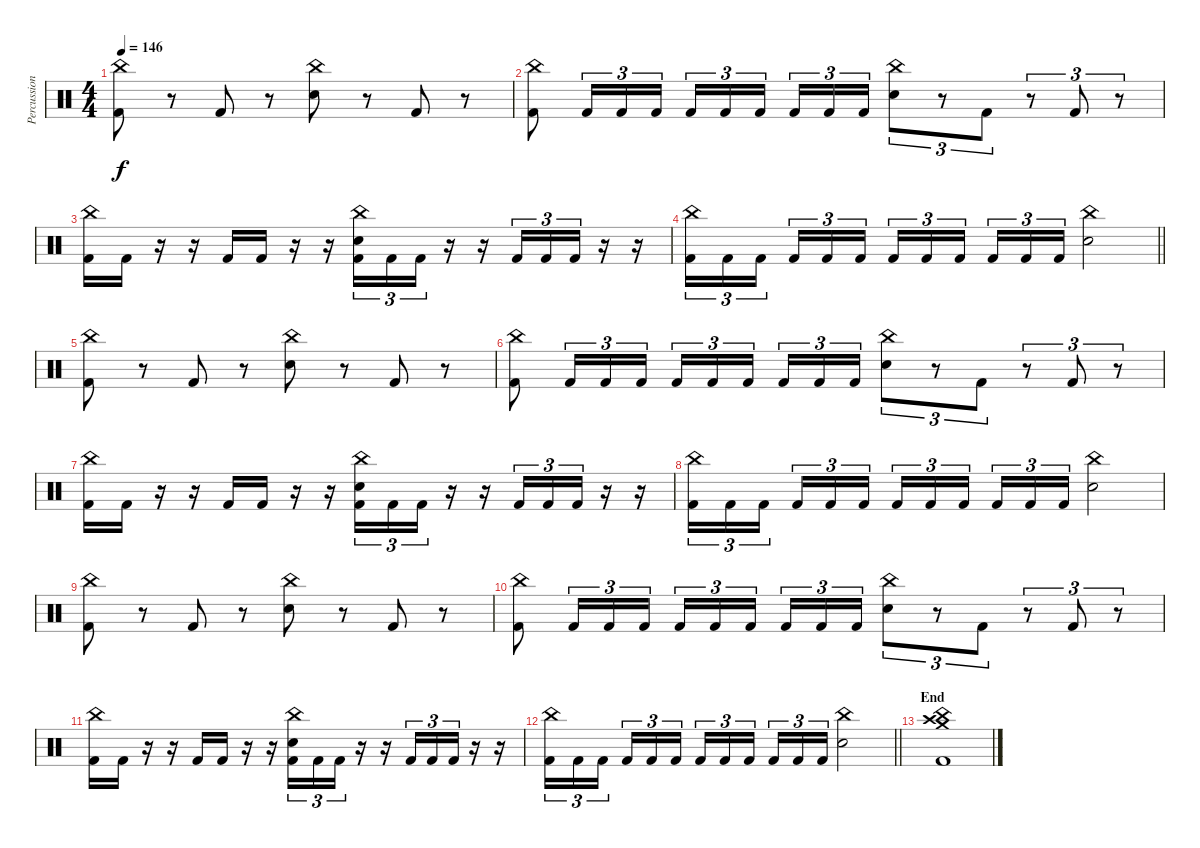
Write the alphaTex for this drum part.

\track ("Percussion" "Percussion") {instrument percussion}
\staff {score}
\articulation defaults
\ts (4 4)
\tempo 146
\clef neutral
\ks c
("China (hit)" "Kick (hit) 2").8{dy f} r.8 "Kick (hit) 2".8 r.8 ("China (hit)" "Electric Snare (hit)").8 r.8 "Kick (hit) 2".8 r.8 |
("China (hit)" "Kick (hit) 2").8 "Kick (hit) 2".16{tu (3 2)} "Kick (hit) 2".16{tu (3 2)} "Kick (hit) 2".16{tu (3 2)} "Kick (hit) 2".16{tu (3 2)} "Kick (hit) 2".16{tu (3 2)} "Kick (hit) 2".16{tu (3 2) beam splitsecondary} "Kick (hit) 2".16{tu (3 2)} "Kick (hit) 2".16{tu (3 2)} "Kick (hit) 2".16{tu (3 2)} ("China (hit)" "Electric Snare (hit)").8{tu (3 2)} r.8{tu (3 2)} "Kick (hit) 2".8{tu (3 2)} r.8{tu (3 2)} "Kick (hit) 2".8{tu (3 2)} r.8{tu (3 2)} |
("China (hit)" "Kick (hit) 2").16 "Kick (hit) 2".16 r.16 r.16 "Kick (hit) 2".16 "Kick (hit) 2".16 r.16 r.16 ("China (hit)" "Electric Snare (hit)" "Kick (hit) 2").16{tu (3 2)} "Kick (hit) 2".16{tu (3 2)} "Kick (hit) 2".16{tu (3 2)} r.16 r.16 "Kick (hit) 2".16{tu (3 2)} "Kick (hit) 2".16{tu (3 2)} "Kick (hit) 2".16{tu (3 2)} r.16 r.16 |
\barLineRight lightlight
("China (hit)" "Kick (hit) 2").16{tu (3 2)} "Kick (hit) 2".16{tu (3 2)} "Kick (hit) 2".16{tu (3 2) beam splitsecondary} "Kick (hit) 2".16{tu (3 2)} "Kick (hit) 2".16{tu (3 2)} "Kick (hit) 2".16{tu (3 2)} "Kick (hit) 2".16{tu (3 2)} "Kick (hit) 2".16{tu (3 2)} "Kick (hit) 2".16{tu (3 2) beam splitsecondary} "Kick (hit) 2".16{tu (3 2)} "Kick (hit) 2".16{tu (3 2)} "Kick (hit) 2".16{tu (3 2)} ("China (hit)" "Electric Snare (hit)").2 |
\section ("" "")
("China (hit)" "Kick (hit) 2").8 r.8 "Kick (hit) 2".8 r.8 ("China (hit)" "Electric Snare (hit)").8 r.8 "Kick (hit) 2".8 r.8 |
("China (hit)" "Kick (hit) 2").8 "Kick (hit) 2".16{tu (3 2)} "Kick (hit) 2".16{tu (3 2)} "Kick (hit) 2".16{tu (3 2)} "Kick (hit) 2".16{tu (3 2)} "Kick (hit) 2".16{tu (3 2)} "Kick (hit) 2".16{tu (3 2) beam splitsecondary} "Kick (hit) 2".16{tu (3 2)} "Kick (hit) 2".16{tu (3 2)} "Kick (hit) 2".16{tu (3 2)} ("China (hit)" "Electric Snare (hit)").8{tu (3 2)} r.8{tu (3 2)} "Kick (hit) 2".8{tu (3 2)} r.8{tu (3 2)} "Kick (hit) 2".8{tu (3 2)} r.8{tu (3 2)} |
("China (hit)" "Kick (hit) 2").16 "Kick (hit) 2".16 r.16 r.16 "Kick (hit) 2".16 "Kick (hit) 2".16 r.16 r.16 ("China (hit)" "Electric Snare (hit)" "Kick (hit) 2").16{tu (3 2)} "Kick (hit) 2".16{tu (3 2)} "Kick (hit) 2".16{tu (3 2)} r.16 r.16 "Kick (hit) 2".16{tu (3 2)} "Kick (hit) 2".16{tu (3 2)} "Kick (hit) 2".16{tu (3 2)} r.16 r.16 |
("China (hit)" "Kick (hit) 2").16{tu (3 2)} "Kick (hit) 2".16{tu (3 2)} "Kick (hit) 2".16{tu (3 2) beam splitsecondary} "Kick (hit) 2".16{tu (3 2)} "Kick (hit) 2".16{tu (3 2)} "Kick (hit) 2".16{tu (3 2)} "Kick (hit) 2".16{tu (3 2)} "Kick (hit) 2".16{tu (3 2)} "Kick (hit) 2".16{tu (3 2) beam splitsecondary} "Kick (hit) 2".16{tu (3 2)} "Kick (hit) 2".16{tu (3 2)} "Kick (hit) 2".16{tu (3 2)} ("China (hit)" "Electric Snare (hit)").2 |
("China (hit)" "Kick (hit) 2").8 r.8 "Kick (hit) 2".8 r.8 ("China (hit)" "Electric Snare (hit)").8 r.8 "Kick (hit) 2".8 r.8 |
("China (hit)" "Kick (hit) 2").8 "Kick (hit) 2".16{tu (3 2)} "Kick (hit) 2".16{tu (3 2)} "Kick (hit) 2".16{tu (3 2)} "Kick (hit) 2".16{tu (3 2)} "Kick (hit) 2".16{tu (3 2)} "Kick (hit) 2".16{tu (3 2) beam splitsecondary} "Kick (hit) 2".16{tu (3 2)} "Kick (hit) 2".16{tu (3 2)} "Kick (hit) 2".16{tu (3 2)} ("China (hit)" "Electric Snare (hit)").8{tu (3 2)} r.8{tu (3 2)} "Kick (hit) 2".8{tu (3 2)} r.8{tu (3 2)} "Kick (hit) 2".8{tu (3 2)} r.8{tu (3 2)} |
("China (hit)" "Kick (hit) 2").16 "Kick (hit) 2".16 r.16 r.16 "Kick (hit) 2".16 "Kick (hit) 2".16 r.16 r.16 ("China (hit)" "Electric Snare (hit)" "Kick (hit) 2").16{tu (3 2)} "Kick (hit) 2".16{tu (3 2)} "Kick (hit) 2".16{tu (3 2)} r.16 r.16 "Kick (hit) 2".16{tu (3 2)} "Kick (hit) 2".16{tu (3 2)} "Kick (hit) 2".16{tu (3 2)} r.16 r.16 |
\barLineRight lightlight
("China (hit)" "Kick (hit) 2").16{tu (3 2)} "Kick (hit) 2".16{tu (3 2)} "Kick (hit) 2".16{tu (3 2) beam splitsecondary} "Kick (hit) 2".16{tu (3 2)} "Kick (hit) 2".16{tu (3 2)} "Kick (hit) 2".16{tu (3 2)} "Kick (hit) 2".16{tu (3 2)} "Kick (hit) 2".16{tu (3 2)} "Kick (hit) 2".16{tu (3 2) beam splitsecondary} "Kick (hit) 2".16{tu (3 2)} "Kick (hit) 2".16{tu (3 2)} "Kick (hit) 2".16{tu (3 2)} ("China (hit)" "Electric Snare (hit)").2 |
\section ("" "End")
("Crash medium (hit)" "Crash high (hit)" "China (hit)" "Kick (hit) 2").1
